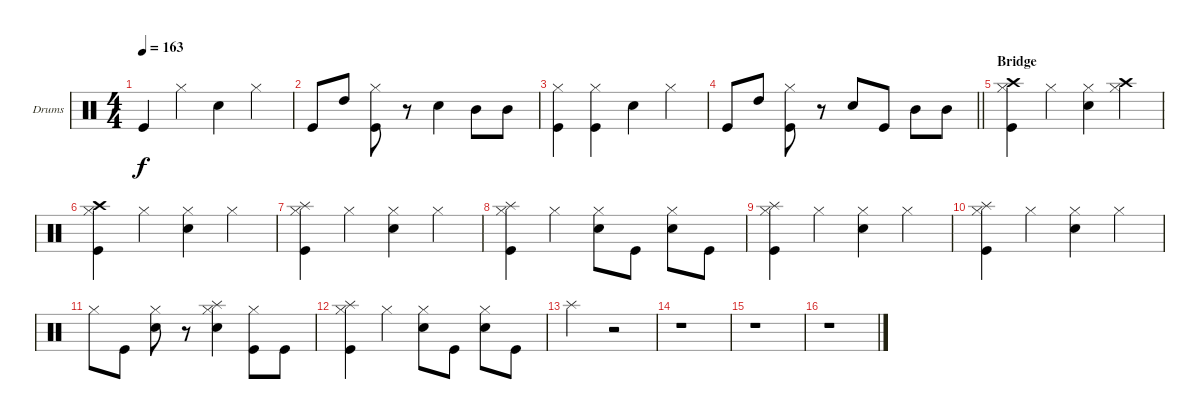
\bracketExtendMode groupsimilarinstruments
\firstSystemTrackNameOrientation horizontal
\otherSystemsTrackNameOrientation horizontal
\track ("Drumkit" "Drums") {instrument percussion}
\staff {score}
\articulation defaults
\ts (4 4)
\tempo 163
\clef neutral
\scale
0.333333
\ks c "Kick (hit)".4{dy f} "Hi-Hat (closed)".4 "Snare (hit) 2".4 "Hi-Hat (closed)".4
|
\scale
0.333333 "Kick (hit)".8 "High Tom (hit)".8 ("Hi-Hat (closed)" "Kick (hit)").8 r.8 "Snare (hit) 2".4 "Mid Tom (hit)".8 "Mid Tom (hit)".8 |
\scale
0.333333 ("Hi-Hat (closed)" "Kick (hit)").4 ("Hi-Hat (closed)" "Kick (hit)").4 "Snare (hit) 2".4 "Hi-Hat (closed)".4 |
\scale
0.333333
\barLineRight lightlight "Kick (hit)".8 "High Tom (hit)".8
("Hi-Hat (closed)" "Kick (hit)").8 r.8 "Snare (hit) 2".8 "Kick (hit)".8 "Mid Tom (hit)".8 "Mid Tom (hit)".8 |
\section ("" "Bridge")
\scale
0.333333 ("Crash high (hit)" "Kick (hit)" "Hi-Hat (closed)").4 "Hi-Hat (closed)".4 ("Snare (hit) 2" "Hi-Hat (closed)").4 ("Crash high (hit)" "Hi-Hat (closed)").4 |
\scale
0.333333 ("Crash high (hit)" "Kick (hit)" "Hi-Hat (closed)").4 "Hi-Hat (closed)".4 ("Snare (hit) 2" "Hi-Hat (closed)").4 "Hi-Hat (closed)".4 |
\scale
0.333333 ("Splash (hit)" "Kick (hit)" "Hi-Hat (closed)").4 "Hi-Hat (closed)".4 ("Snare (hit) 2" "Hi-Hat (closed)").4 "Hi-Hat (closed)".4 |
\scale
0.333333 ("Splash (hit)" "Kick (hit)" "Hi-Hat (closed)").4 "Hi-Hat (closed)".4 ("Snare (hit) 2" "Hi-Hat (closed)").8 "Kick (hit)".8 ("Snare (hit) 2" "Hi-Hat (closed)").8 "Kick (hit)".8 |
\scale
0.333333 ("Splash (hit)" "Kick (hit)" "Hi-Hat (closed)").4 "Hi-Hat (closed)".4 ("Snare (hit) 2" "Hi-Hat (closed)").4 "Hi-Hat (closed)".4 |
\scale
0.333333 ("Splash (hit)" "Kick (hit)" "Hi-Hat (closed)").4 "Hi-Hat (closed)".4 ("Snare (hit) 2" "Hi-Hat (closed)").4 "Hi-Hat (closed)".4 |
\scale
0.333333 "Hi-Hat (closed)".8 "Kick (hit)".8 ("Snare (hit) 2" "Hi-Hat (closed)").8 r.8 ("Splash (hit)" "Snare (hit) 2" "Hi-Hat (closed)").4 ("Kick (hit)" "Hi-Hat (closed)").8 "Kick (hit)".8 |
\scale
0.333333 ("Splash (hit)" "Kick (hit)" "Hi-Hat (closed)").4 "Hi-Hat (closed)".4 ("Snare (hit) 2" "Hi-Hat (closed)").8 "Kick (hit)".8 ("Snare (hit) 2" "Hi-Hat (closed)").8 "Kick (hit)".8 |
\scale
0.333333 "Splash (hit)".2 r.2 |
\scale
0.333333 r.1 |
\scale
0.333333 r.1 |
\scale
0.333333 r.1
